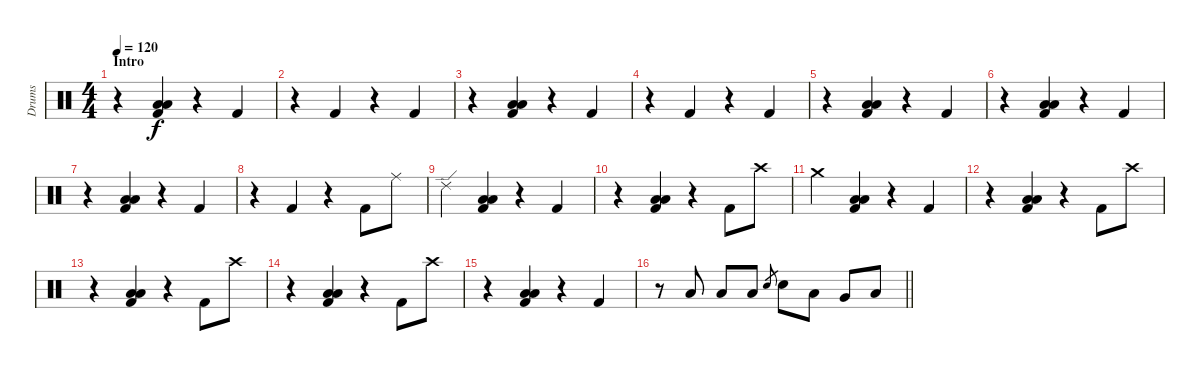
\track ("Drums" "Drums") {instrument percussion}
\staff {score}
\articulation defaults
\ts (4 4)
\section ("" "Intro")
\tempo 120
\clef neutral
\ks c
r.4{dy f} ("Low Floor Tom (hit)" "Low Tom (hit)" "Kick (hit) 2").4 r.4 "Kick (hit) 2".4 |
r.4 "Kick (hit) 2".4 r.4 "Kick (hit) 2".4 |
r.4 ("Low Floor Tom (hit)" "Low Tom (hit)" "Kick (hit) 2").4 r.4 "Kick (hit) 2".4 |
r.4 "Kick (hit) 2".4 r.4 "Kick (hit) 2".4 |
r.4 ("Low Floor Tom (hit)" "Low Tom (hit)" "Kick (hit) 2").4 r.4 "Kick (hit) 2".4 |
r.4 ("Low Floor Tom (hit)" "Low Tom (hit)" "Kick (hit) 2").4 r.4 "Kick (hit) 2".4 |
r.4 ("Low Floor Tom (hit)" "Low Tom (hit)" "Kick (hit) 2").4 r.4 "Kick (hit) 2".4 |
r.4 "Kick (hit) 2".4 r.4 "Kick (hit) 2".8 "Ride (middle)".8 |
"Ride (edge) 2".4 ("Low Floor Tom (hit)" "Low Tom (hit)" "Kick (hit) 2").4 r.4 "Kick (hit) 2".4 |
r.4 ("Low Floor Tom (hit)" "Low Tom (hit)" "Kick (hit) 2").4 r.4 "Kick (hit) 2".8 "Crash high (hit)".8 |
"Crash medium (hit)".4 ("Low Floor Tom (hit)" "Low Tom (hit)" "Kick (hit) 2").4 r.4 "Kick (hit) 2".4 |
r.4 ("Low Floor Tom (hit)" "Low Tom (hit)" "Kick (hit) 2").4 r.4 "Kick (hit) 2".8 "Crash high (hit)".8 |
r.4 ("Low Floor Tom (hit)" "Low Tom (hit)" "Kick (hit) 2").4 r.4 "Kick (hit) 2".8 "Crash high (hit)".8 |
r.4 ("Low Floor Tom (hit)" "Low Tom (hit)" "Kick (hit) 2").4 r.4 "Kick (hit) 2".8 "Crash high (hit)".8 |
r.4 ("Low Floor Tom (hit)" "Low Tom (hit)" "Kick (hit) 2").4 r.4 "Kick (hit) 2".4 |
\barLineRight lightlight
r.8 "Low Tom (hit)".8 "Low Tom (hit)".8 "Low Tom (hit)".8 "Snare (hit) 2".8{gr} "Snare (hit) 2".8 "Low Tom (hit)".8 "Very Low Tom (hit)".8 "Low Floor Tom (hit)".8
